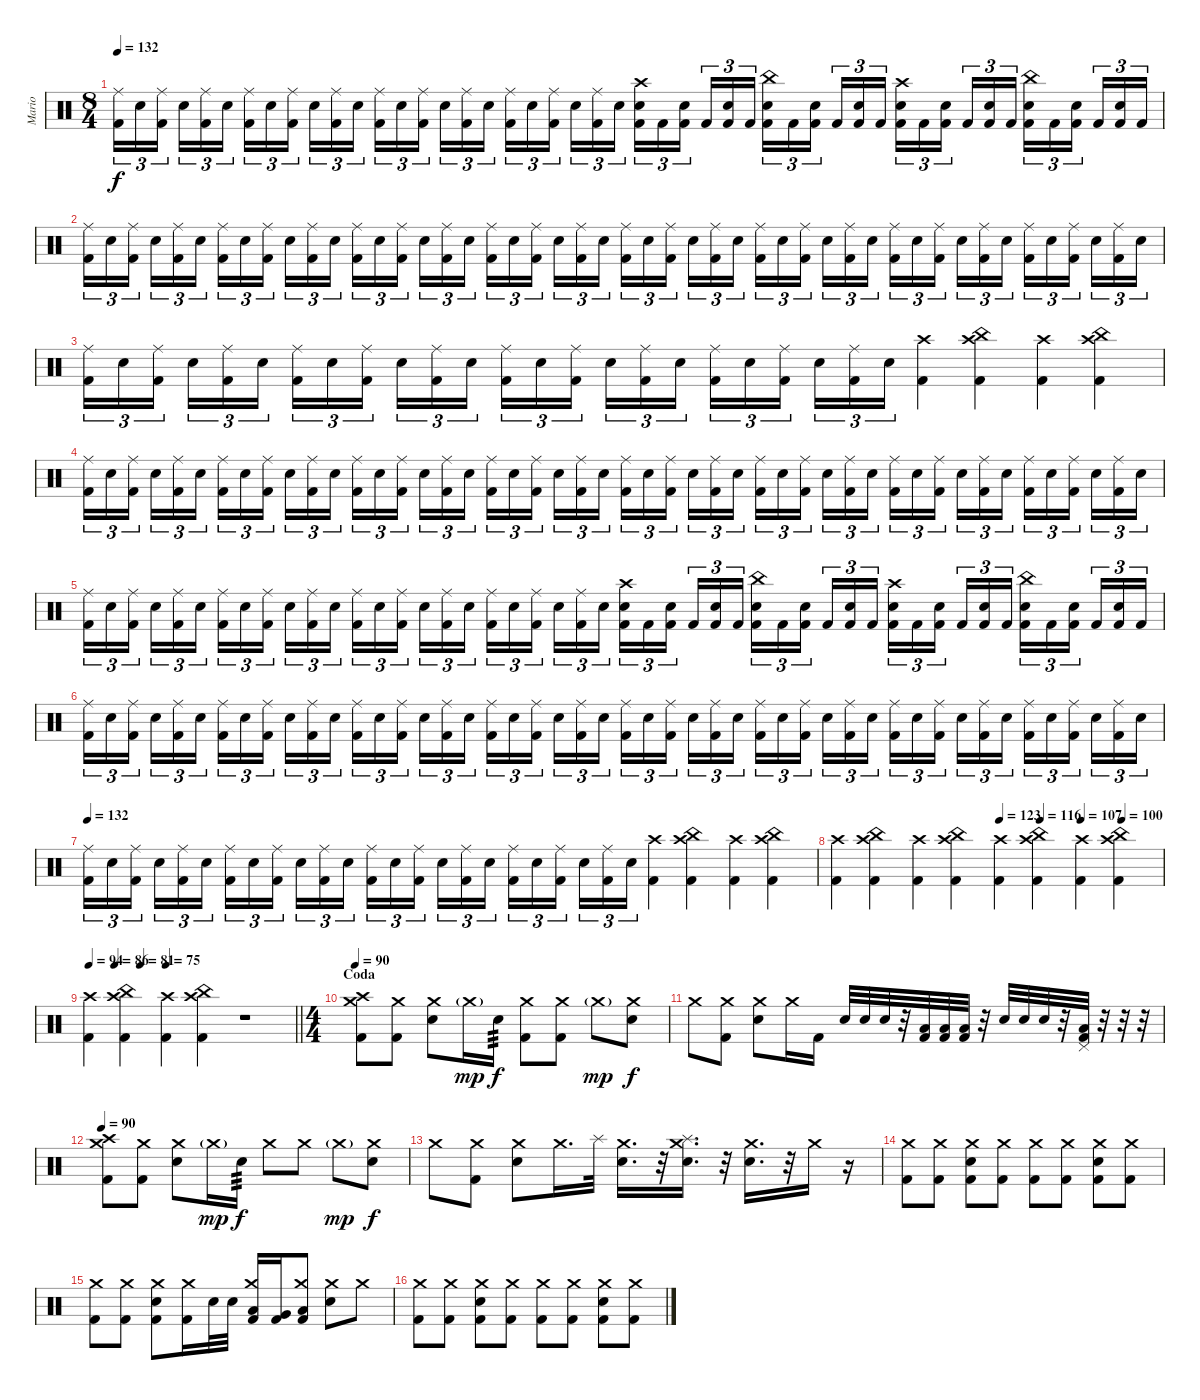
\track ("Mario" "Mario") {instrument percussion}
\staff {score}
\articulation defaults
\ts (8 4)
\tempo 132
\clef neutral
\ks c
("Ride (middle)" "Kick (hit) 2").16{tu (3 2) dy f} "Electric Snare (hit)".16{tu (3 2)} ("Ride (middle)" "Kick (hit) 2").16{tu (3 2) beam splitsecondary} "Electric Snare (hit)".16{tu (3 2)} ("Ride (middle)" "Kick (hit) 2").16{tu (3 2)} "Electric Snare (hit)".16{tu (3 2)} ("Ride (middle)" "Kick (hit) 2").16{tu (3 2)} "Electric Snare (hit)".16{tu (3 2)} ("Ride (middle)" "Kick (hit) 2").16{tu (3 2) beam splitsecondary} "Electric Snare (hit)".16{tu (3 2)} ("Ride (middle)" "Kick (hit) 2").16{tu (3 2)} "Electric Snare (hit)".16{tu (3 2)} ("Ride (middle)" "Kick (hit) 2").16{tu (3 2)} "Electric Snare (hit)".16{tu (3 2)} ("Ride (middle)" "Kick (hit) 2").16{tu (3 2) beam splitsecondary} "Electric Snare (hit)".16{tu (3 2)} ("Ride (middle)" "Kick (hit) 2").16{tu (3 2)} "Electric Snare (hit)".16{tu (3 2)} ("Ride (middle)" "Kick (hit) 2").16{tu (3 2)} "Electric Snare (hit)".16{tu (3 2)} ("Ride (middle)" "Kick (hit) 2").16{tu (3 2) beam splitsecondary} "Electric Snare (hit)".16{tu (3 2)} ("Ride (middle)" "Kick (hit) 2").16{tu (3 2)} "Electric Snare (hit)".16{tu (3 2)} ("Crash high (hit)" "Electric Snare (hit)" "Kick (hit) 2").16{tu (3 2)} "Kick (hit) 2".16{tu (3 2)} ("Electric Snare (hit)" "Kick (hit) 2").16{tu (3 2) beam splitsecondary} "Kick (hit) 2".16{tu (3 2)} ("Electric Snare (hit)" "Kick (hit) 2").16{tu (3 2)} "Kick (hit) 2".16{tu (3 2)} ("China (hit)" "Electric Snare (hit)" "Kick (hit) 2").16{tu (3 2)} "Kick (hit) 2".16{tu (3 2)} ("Electric Snare (hit)" "Kick (hit) 2").16{tu (3 2) beam splitsecondary} "Kick (hit) 2".16{tu (3 2)} ("Electric Snare (hit)" "Kick (hit) 2").16{tu (3 2)} "Kick (hit) 2".16{tu (3 2)} ("Crash high (hit)" "Electric Snare (hit)" "Kick (hit) 2").16{tu (3 2)} "Kick (hit) 2".16{tu (3 2)} ("Electric Snare (hit)" "Kick (hit) 2").16{tu (3 2) beam splitsecondary} "Kick (hit) 2".16{tu (3 2)} ("Electric Snare (hit)" "Kick (hit) 2").16{tu (3 2)} "Kick (hit) 2".16{tu (3 2)} ("China (hit)" "Electric Snare (hit)" "Kick (hit) 2").16{tu (3 2)} "Kick (hit) 2".16{tu (3 2)} ("Electric Snare (hit)" "Kick (hit) 2").16{tu (3 2) beam splitsecondary} "Kick (hit) 2".16{tu (3 2)} ("Electric Snare (hit)" "Kick (hit) 2").16{tu (3 2)} "Kick (hit) 2".16{tu (3 2)} |
("Ride (middle)" "Kick (hit) 2").16{tu (3 2) volume 13} "Electric Snare (hit)".16{tu (3 2)} ("Ride (middle)" "Kick (hit) 2").16{tu (3 2) beam splitsecondary} "Electric Snare (hit)".16{tu (3 2)} ("Ride (middle)" "Kick (hit) 2").16{tu (3 2)} "Electric Snare (hit)".16{tu (3 2)} ("Ride (middle)" "Kick (hit) 2").16{tu (3 2)} "Electric Snare (hit)".16{tu (3 2)} ("Ride (middle)" "Kick (hit) 2").16{tu (3 2) beam splitsecondary} "Electric Snare (hit)".16{tu (3 2)} ("Ride (middle)" "Kick (hit) 2").16{tu (3 2)} "Electric Snare (hit)".16{tu (3 2)} ("Ride (middle)" "Kick (hit) 2").16{tu (3 2)} "Electric Snare (hit)".16{tu (3 2)} ("Ride (middle)" "Kick (hit) 2").16{tu (3 2) beam splitsecondary} "Electric Snare (hit)".16{tu (3 2)} ("Ride (middle)" "Kick (hit) 2").16{tu (3 2)} "Electric Snare (hit)".16{tu (3 2)} ("Ride (middle)" "Kick (hit) 2").16{tu (3 2)} "Electric Snare (hit)".16{tu (3 2)} ("Ride (middle)" "Kick (hit) 2").16{tu (3 2) beam splitsecondary} "Electric Snare (hit)".16{tu (3 2)} ("Ride (middle)" "Kick (hit) 2").16{tu (3 2)} "Electric Snare (hit)".16{tu (3 2)} ("Ride (middle)" "Kick (hit) 2").16{tu (3 2)} "Electric Snare (hit)".16{tu (3 2)} ("Ride (middle)" "Kick (hit) 2").16{tu (3 2) beam splitsecondary} "Electric Snare (hit)".16{tu (3 2)} ("Ride (middle)" "Kick (hit) 2").16{tu (3 2)} "Electric Snare (hit)".16{tu (3 2)} ("Ride (middle)" "Kick (hit) 2").16{tu (3 2)} "Electric Snare (hit)".16{tu (3 2)} ("Ride (middle)" "Kick (hit) 2").16{tu (3 2) beam splitsecondary} "Electric Snare (hit)".16{tu (3 2)} ("Ride (middle)" "Kick (hit) 2").16{tu (3 2)} "Electric Snare (hit)".16{tu (3 2)} ("Ride (middle)" "Kick (hit) 2").16{tu (3 2)} "Electric Snare (hit)".16{tu (3 2)} ("Ride (middle)" "Kick (hit) 2").16{tu (3 2) beam splitsecondary} "Electric Snare (hit)".16{tu (3 2)} ("Ride (middle)" "Kick (hit) 2").16{tu (3 2)} "Electric Snare (hit)".16{tu (3 2)} ("Ride (middle)" "Kick (hit) 2").16{tu (3 2)} "Electric Snare (hit)".16{tu (3 2)} ("Ride (middle)" "Kick (hit) 2").16{tu (3 2) beam splitsecondary} "Electric Snare (hit)".16{tu (3 2)} ("Ride (middle)" "Kick (hit) 2").16{tu (3 2)} "Electric Snare (hit)".16{tu (3 2)} |
("Ride (middle)" "Kick (hit) 2").16{tu (3 2)} "Electric Snare (hit)".16{tu (3 2)} ("Ride (middle)" "Kick (hit) 2").16{tu (3 2) beam splitsecondary} "Electric Snare (hit)".16{tu (3 2)} ("Ride (middle)" "Kick (hit) 2").16{tu (3 2)} "Electric Snare (hit)".16{tu (3 2)} ("Ride (middle)" "Kick (hit) 2").16{tu (3 2)} "Electric Snare (hit)".16{tu (3 2)} ("Ride (middle)" "Kick (hit) 2").16{tu (3 2) beam splitsecondary} "Electric Snare (hit)".16{tu (3 2)} ("Ride (middle)" "Kick (hit) 2").16{tu (3 2)} "Electric Snare (hit)".16{tu (3 2)} ("Ride (middle)" "Kick (hit) 2").16{tu (3 2)} "Electric Snare (hit)".16{tu (3 2)} ("Ride (middle)" "Kick (hit) 2").16{tu (3 2) beam splitsecondary} "Electric Snare (hit)".16{tu (3 2)} ("Ride (middle)" "Kick (hit) 2").16{tu (3 2)} "Electric Snare (hit)".16{tu (3 2)} ("Ride (middle)" "Kick (hit) 2").16{tu (3 2)} "Electric Snare (hit)".16{tu (3 2)} ("Ride (middle)" "Kick (hit) 2").16{tu (3 2) beam splitsecondary} "Electric Snare (hit)".16{tu (3 2)} ("Ride (middle)" "Kick (hit) 2").16{tu (3 2)} "Electric Snare (hit)".16{tu (3 2)} ("Crash high (hit)" "Kick (hit) 2").4 ("Crash high (hit)" "China (hit)" "Kick (hit) 2").4 ("Crash high (hit)" "Kick (hit) 2").4 ("Crash high (hit)" "China (hit)" "Kick (hit) 2").4 |
("Ride (middle)" "Kick (hit) 2").16{tu (3 2) volume 13} "Electric Snare (hit)".16{tu (3 2)} ("Ride (middle)" "Kick (hit) 2").16{tu (3 2) beam splitsecondary} "Electric Snare (hit)".16{tu (3 2)} ("Ride (middle)" "Kick (hit) 2").16{tu (3 2)} "Electric Snare (hit)".16{tu (3 2)} ("Ride (middle)" "Kick (hit) 2").16{tu (3 2)} "Electric Snare (hit)".16{tu (3 2)} ("Ride (middle)" "Kick (hit) 2").16{tu (3 2) beam splitsecondary} "Electric Snare (hit)".16{tu (3 2)} ("Ride (middle)" "Kick (hit) 2").16{tu (3 2)} "Electric Snare (hit)".16{tu (3 2)} ("Ride (middle)" "Kick (hit) 2").16{tu (3 2)} "Electric Snare (hit)".16{tu (3 2)} ("Ride (middle)" "Kick (hit) 2").16{tu (3 2) beam splitsecondary} "Electric Snare (hit)".16{tu (3 2)} ("Ride (middle)" "Kick (hit) 2").16{tu (3 2)} "Electric Snare (hit)".16{tu (3 2)} ("Ride (middle)" "Kick (hit) 2").16{tu (3 2)} "Electric Snare (hit)".16{tu (3 2)} ("Ride (middle)" "Kick (hit) 2").16{tu (3 2) beam splitsecondary} "Electric Snare (hit)".16{tu (3 2)} ("Ride (middle)" "Kick (hit) 2").16{tu (3 2)} "Electric Snare (hit)".16{tu (3 2)} ("Ride (middle)" "Kick (hit) 2").16{tu (3 2)} "Electric Snare (hit)".16{tu (3 2)} ("Ride (middle)" "Kick (hit) 2").16{tu (3 2) beam splitsecondary} "Electric Snare (hit)".16{tu (3 2)} ("Ride (middle)" "Kick (hit) 2").16{tu (3 2)} "Electric Snare (hit)".16{tu (3 2)} ("Ride (middle)" "Kick (hit) 2").16{tu (3 2)} "Electric Snare (hit)".16{tu (3 2)} ("Ride (middle)" "Kick (hit) 2").16{tu (3 2) beam splitsecondary} "Electric Snare (hit)".16{tu (3 2)} ("Ride (middle)" "Kick (hit) 2").16{tu (3 2)} "Electric Snare (hit)".16{tu (3 2)} ("Ride (middle)" "Kick (hit) 2").16{tu (3 2)} "Electric Snare (hit)".16{tu (3 2)} ("Ride (middle)" "Kick (hit) 2").16{tu (3 2) beam splitsecondary} "Electric Snare (hit)".16{tu (3 2)} ("Ride (middle)" "Kick (hit) 2").16{tu (3 2)} "Electric Snare (hit)".16{tu (3 2)} ("Ride (middle)" "Kick (hit) 2").16{tu (3 2)} "Electric Snare (hit)".16{tu (3 2)} ("Ride (middle)" "Kick (hit) 2").16{tu (3 2) beam splitsecondary} "Electric Snare (hit)".16{tu (3 2)} ("Ride (middle)" "Kick (hit) 2").16{tu (3 2)} "Electric Snare (hit)".16{tu (3 2)} |
("Ride (middle)" "Kick (hit) 2").16{tu (3 2)} "Electric Snare (hit)".16{tu (3 2)} ("Ride (middle)" "Kick (hit) 2").16{tu (3 2) beam splitsecondary} "Electric Snare (hit)".16{tu (3 2)} ("Ride (middle)" "Kick (hit) 2").16{tu (3 2)} "Electric Snare (hit)".16{tu (3 2)} ("Ride (middle)" "Kick (hit) 2").16{tu (3 2)} "Electric Snare (hit)".16{tu (3 2)} ("Ride (middle)" "Kick (hit) 2").16{tu (3 2) beam splitsecondary} "Electric Snare (hit)".16{tu (3 2)} ("Ride (middle)" "Kick (hit) 2").16{tu (3 2)} "Electric Snare (hit)".16{tu (3 2)} ("Ride (middle)" "Kick (hit) 2").16{tu (3 2)} "Electric Snare (hit)".16{tu (3 2)} ("Ride (middle)" "Kick (hit) 2").16{tu (3 2) beam splitsecondary} "Electric Snare (hit)".16{tu (3 2)} ("Ride (middle)" "Kick (hit) 2").16{tu (3 2)} "Electric Snare (hit)".16{tu (3 2)} ("Ride (middle)" "Kick (hit) 2").16{tu (3 2)} "Electric Snare (hit)".16{tu (3 2)} ("Ride (middle)" "Kick (hit) 2").16{tu (3 2) beam splitsecondary} "Electric Snare (hit)".16{tu (3 2)} ("Ride (middle)" "Kick (hit) 2").16{tu (3 2)} "Electric Snare (hit)".16{tu (3 2)} ("Crash high (hit)" "Electric Snare (hit)" "Kick (hit) 2").16{tu (3 2)} "Kick (hit) 2".16{tu (3 2)} ("Electric Snare (hit)" "Kick (hit) 2").16{tu (3 2) beam splitsecondary} "Kick (hit) 2".16{tu (3 2)} ("Electric Snare (hit)" "Kick (hit) 2").16{tu (3 2)} "Kick (hit) 2".16{tu (3 2)} ("China (hit)" "Electric Snare (hit)" "Kick (hit) 2").16{tu (3 2)} "Kick (hit) 2".16{tu (3 2)} ("Electric Snare (hit)" "Kick (hit) 2").16{tu (3 2) beam splitsecondary} "Kick (hit) 2".16{tu (3 2)} ("Electric Snare (hit)" "Kick (hit) 2").16{tu (3 2)} "Kick (hit) 2".16{tu (3 2)} ("Crash high (hit)" "Electric Snare (hit)" "Kick (hit) 2").16{tu (3 2)} "Kick (hit) 2".16{tu (3 2)} ("Electric Snare (hit)" "Kick (hit) 2").16{tu (3 2) beam splitsecondary} "Kick (hit) 2".16{tu (3 2)} ("Electric Snare (hit)" "Kick (hit) 2").16{tu (3 2)} "Kick (hit) 2".16{tu (3 2)} ("China (hit)" "Electric Snare (hit)" "Kick (hit) 2").16{tu (3 2)} "Kick (hit) 2".16{tu (3 2)} ("Electric Snare (hit)" "Kick (hit) 2").16{tu (3 2) beam splitsecondary} "Kick (hit) 2".16{tu (3 2)} ("Electric Snare (hit)" "Kick (hit) 2").16{tu (3 2)} "Kick (hit) 2".16{tu (3 2)} |
("Ride (middle)" "Kick (hit) 2").16{tu (3 2) volume 13} "Electric Snare (hit)".16{tu (3 2)} ("Ride (middle)" "Kick (hit) 2").16{tu (3 2) beam splitsecondary} "Electric Snare (hit)".16{tu (3 2)} ("Ride (middle)" "Kick (hit) 2").16{tu (3 2)} "Electric Snare (hit)".16{tu (3 2)} ("Ride (middle)" "Kick (hit) 2").16{tu (3 2)} "Electric Snare (hit)".16{tu (3 2)} ("Ride (middle)" "Kick (hit) 2").16{tu (3 2) beam splitsecondary} "Electric Snare (hit)".16{tu (3 2)} ("Ride (middle)" "Kick (hit) 2").16{tu (3 2)} "Electric Snare (hit)".16{tu (3 2)} ("Ride (middle)" "Kick (hit) 2").16{tu (3 2)} "Electric Snare (hit)".16{tu (3 2)} ("Ride (middle)" "Kick (hit) 2").16{tu (3 2) beam splitsecondary} "Electric Snare (hit)".16{tu (3 2)} ("Ride (middle)" "Kick (hit) 2").16{tu (3 2)} "Electric Snare (hit)".16{tu (3 2)} ("Ride (middle)" "Kick (hit) 2").16{tu (3 2)} "Electric Snare (hit)".16{tu (3 2)} ("Ride (middle)" "Kick (hit) 2").16{tu (3 2) beam splitsecondary} "Electric Snare (hit)".16{tu (3 2)} ("Ride (middle)" "Kick (hit) 2").16{tu (3 2)} "Electric Snare (hit)".16{tu (3 2)} ("Ride (middle)" "Kick (hit) 2").16{tu (3 2)} "Electric Snare (hit)".16{tu (3 2)} ("Ride (middle)" "Kick (hit) 2").16{tu (3 2) beam splitsecondary} "Electric Snare (hit)".16{tu (3 2)} ("Ride (middle)" "Kick (hit) 2").16{tu (3 2)} "Electric Snare (hit)".16{tu (3 2)} ("Ride (middle)" "Kick (hit) 2").16{tu (3 2)} "Electric Snare (hit)".16{tu (3 2)} ("Ride (middle)" "Kick (hit) 2").16{tu (3 2) beam splitsecondary} "Electric Snare (hit)".16{tu (3 2)} ("Ride (middle)" "Kick (hit) 2").16{tu (3 2)} "Electric Snare (hit)".16{tu (3 2)} ("Ride (middle)" "Kick (hit) 2").16{tu (3 2)} "Electric Snare (hit)".16{tu (3 2)} ("Ride (middle)" "Kick (hit) 2").16{tu (3 2) beam splitsecondary} "Electric Snare (hit)".16{tu (3 2)} ("Ride (middle)" "Kick (hit) 2").16{tu (3 2)} "Electric Snare (hit)".16{tu (3 2)} ("Ride (middle)" "Kick (hit) 2").16{tu (3 2)} "Electric Snare (hit)".16{tu (3 2)} ("Ride (middle)" "Kick (hit) 2").16{tu (3 2) beam splitsecondary} "Electric Snare (hit)".16{tu (3 2)} ("Ride (middle)" "Kick (hit) 2").16{tu (3 2)} "Electric Snare (hit)".16{tu (3 2)} |
\tempo 132
("Ride (middle)" "Kick (hit) 2").16{tu (3 2)} "Electric Snare (hit)".16{tu (3 2)} ("Ride (middle)" "Kick (hit) 2").16{tu (3 2) beam splitsecondary} "Electric Snare (hit)".16{tu (3 2)} ("Ride (middle)" "Kick (hit) 2").16{tu (3 2)} "Electric Snare (hit)".16{tu (3 2)} ("Ride (middle)" "Kick (hit) 2").16{tu (3 2)} "Electric Snare (hit)".16{tu (3 2)} ("Ride (middle)" "Kick (hit) 2").16{tu (3 2) beam splitsecondary} "Electric Snare (hit)".16{tu (3 2)} ("Ride (middle)" "Kick (hit) 2").16{tu (3 2)} "Electric Snare (hit)".16{tu (3 2)} ("Ride (middle)" "Kick (hit) 2").16{tu (3 2)} "Electric Snare (hit)".16{tu (3 2)} ("Ride (middle)" "Kick (hit) 2").16{tu (3 2) beam splitsecondary} "Electric Snare (hit)".16{tu (3 2)} ("Ride (middle)" "Kick (hit) 2").16{tu (3 2)} "Electric Snare (hit)".16{tu (3 2)} ("Ride (middle)" "Kick (hit) 2").16{tu (3 2)} "Electric Snare (hit)".16{tu (3 2)} ("Ride (middle)" "Kick (hit) 2").16{tu (3 2) beam splitsecondary} "Electric Snare (hit)".16{tu (3 2)} ("Ride (middle)" "Kick (hit) 2").16{tu (3 2)} "Electric Snare (hit)".16{tu (3 2)} ("Crash high (hit)" "Kick (hit) 2").4 ("Crash high (hit)" "China (hit)" "Kick (hit) 2").4 ("Crash high (hit)" "Kick (hit) 2").4 ("Crash high (hit)" "China (hit)" "Kick (hit) 2").4 |
\tempo (123 0.5)
\tempo (116 0.625)
\tempo (107 0.75)
\tempo (100 0.875)
("Crash high (hit)" "Kick (hit) 2").4 ("Crash high (hit)" "China (hit)" "Kick (hit) 2").4 ("Crash high (hit)" "Kick (hit) 2").4 ("Crash high (hit)" "China (hit)" "Kick (hit) 2").4 ("Crash high (hit)" "Kick (hit) 2").4 ("Crash high (hit)" "China (hit)" "Kick (hit) 2").4 ("Crash high (hit)" "Kick (hit) 2").4 ("Crash high (hit)" "China (hit)" "Kick (hit) 2").4 |
\tempo 94
\tempo (86 0.125)
\tempo (81 0.25)
\tempo (75 0.375)
\barLineRight lightlight
("Crash high (hit)" "Kick (hit) 2").4 ("Crash high (hit)" "China (hit)" "Kick (hit) 2").4 ("Crash high (hit)" "Kick (hit) 2").4 ("Crash high (hit)" "China (hit)" "Kick (hit) 2").4 r.1 |
\ts (4 4)
\section ("" "Coda")
\tempo 90
("Crash medium (hit)" "Crash high (hit)" "Kick (hit) 2").8 ("Crash medium (hit)" "Kick (hit) 2").8 ("Crash medium (hit)" "Electric Snare (hit)").8 "Crash medium (hit)"{g}.16{dy mp} "Electric Snare (hit)".16{tp 3 dy f} ("Crash medium (hit)" "Kick (hit) 2").8 ("Crash medium (hit)" "Kick (hit) 2").8 "Crash medium (hit)"{g}.8{dy mp} ("Crash medium (hit)" "Electric Snare (hit)").8{dy f} |
"Crash medium (hit)".8 ("Crash medium (hit)" "Kick (hit) 2").8 ("Crash medium (hit)" "Electric Snare (hit)").8 "Crash medium (hit)".16 "Kick (hit) 2".16 "Electric Snare (hit)".32 "Electric Snare (hit)".32 "Electric Snare (hit)".32 r.32 ("Low Floor Tom (hit)" "Kick (hit) 2").32 ("Low Floor Tom (hit)" "Kick (hit) 2").32 ("Low Floor Tom (hit)" "Kick (hit) 2").32 r.32 "Electric Snare (hit)".32 "Electric Snare (hit)".32 "Electric Snare (hit)".32 r.32 ("Pedal Hi-Hat (hit)" "Low Floor Tom (hit)" "Kick (hit) 2").32 r.32 r.32 r.32 |
\tempo 90
("Crash medium (hit)" "Crash high (hit)" "Kick (hit) 2").8 ("Crash medium (hit)" "Kick (hit) 2").8 ("Crash medium (hit)" "Electric Snare (hit)").8 "Crash medium (hit)"{g}.16{dy mp} "Electric Snare (hit)".16{tp 3 dy f} "Crash medium (hit)".8 "Crash medium (hit)".8 "Crash medium (hit)"{g}.8{dy mp} ("Crash medium (hit)" "Electric Snare (hit)").8{dy f} |
"Crash medium (hit)".8 ("Crash medium (hit)" "Kick (hit) 2").8 ("Crash medium (hit)" "Electric Snare (hit)").8 "Crash medium (hit)".16{d} "Splash (hit)".32 ("Crash medium (hit)" "Electric Snare (hit)").16{d} r.32 ("Splash (hit)" "Crash medium (hit)" "Electric Snare (hit)").16{d} r.32 ("Crash medium (hit)" "Electric Snare (hit)").16{d} r.32 "Crash medium (hit)".16 r.16 |
("Crash medium (hit)" "Kick (hit) 2").8 ("Crash medium (hit)" "Kick (hit) 2").8 ("Crash medium (hit)" "Electric Snare (hit)" "Kick (hit) 2").8 ("Crash medium (hit)" "Kick (hit) 2").8 ("Crash medium (hit)" "Kick (hit) 2").8 ("Crash medium (hit)" "Kick (hit) 2").8 ("Crash medium (hit)" "Electric Snare (hit)" "Kick (hit) 2").8 ("Crash medium (hit)" "Kick (hit) 2").8 |
("Crash medium (hit)" "Kick (hit) 2").8 ("Crash medium (hit)" "Kick (hit) 2").8 ("Crash medium (hit)" "Electric Snare (hit)" "Kick (hit) 2").8 ("Crash medium (hit)" "Kick (hit) 2").16 "Electric Snare (hit)".32 "Electric Snare (hit)".32 ("Crash medium (hit)" "Low Tom (hit)" "Kick (hit) 2").16 ("Very Low Tom (hit)" "Kick (hit) 2").16 ("Crash medium (hit)" "Low Floor Tom (hit)" "Kick (hit) 2").8 ("Crash medium (hit)" "Electric Snare (hit)").8 "Crash medium (hit)".8 |
("Crash medium (hit)" "Kick (hit) 2").8 ("Crash medium (hit)" "Kick (hit) 2").8 ("Crash medium (hit)" "Electric Snare (hit)" "Kick (hit) 2").8 ("Crash medium (hit)" "Kick (hit) 2").8 ("Crash medium (hit)" "Kick (hit) 2").8 ("Crash medium (hit)" "Kick (hit) 2").8 ("Crash medium (hit)" "Electric Snare (hit)" "Kick (hit) 2").8 ("Crash medium (hit)" "Kick (hit) 2").8
